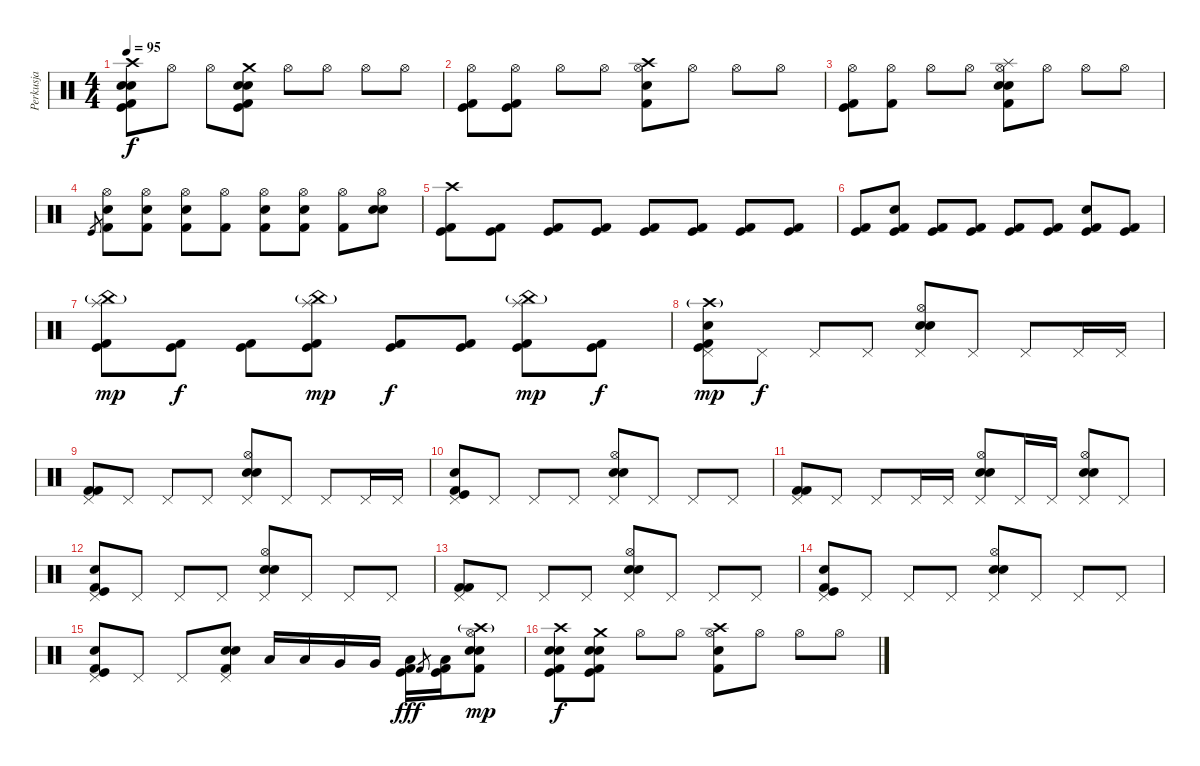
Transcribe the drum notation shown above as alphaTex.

\track ("Perkusja" "Perkusja") {instrument percussion}
\staff {score}
\articulation defaults
\ts (4 4)
\tempo 95
\clef neutral
\ks c
("Crash high (hit)" "Snare (hit) 2" "Electric Snare (hit)" "Kick (hit)" "Kick (hit) 2").8{dy f} "Hi-Hat (open)".8 "Hi-Hat (open)".8 ("Crash medium (hit)" "Snare (hit) 2" "Electric Snare (hit)" "Kick (hit)" "Kick (hit) 2").8 "Hi-Hat (open)".8 "Hi-Hat (open)".8 "Hi-Hat (open)".8 "Hi-Hat (open)".8 |
("Hi-Hat (open)" "Kick (hit)" "Kick (hit) 2").8 ("Hi-Hat (open)" "Kick (hit)" "Kick (hit) 2").8 "Hi-Hat (open)".8 "Hi-Hat (open)".8 ("Hi-Hat (open)" "Crash high (hit)" "Kick (hit) 2" "Electric Snare (hit)").8 "Hi-Hat (open)".8 "Hi-Hat (open)".8 "Hi-Hat (open)".8 |
("Hi-Hat (open)" "Kick (hit)" "Kick (hit) 2").8 ("Hi-Hat (open)" "Kick (hit) 2").8 "Hi-Hat (open)".8 "Hi-Hat (open)".8 ("Hi-Hat (open)" "Splash (hit)" "Snare (hit) 2" "Kick (hit) 2" "Electric Snare (hit)").8 "Hi-Hat (open)".8 "Hi-Hat (open)".8 "Hi-Hat (open)".8 |
"Kick (hit)".8{gr} ("Hi-Hat (open)" "Snare (hit) 2" "Kick (hit) 2").8 ("Hi-Hat (open)" "Electric Snare (hit)" "Kick (hit) 2").8 ("Hi-Hat (open)" "Electric Snare (hit)" "Kick (hit) 2").8 ("Hi-Hat (open)" "Kick (hit) 2").8 ("Hi-Hat (open)" "Kick (hit) 2" "Electric Snare (hit)").8 ("Hi-Hat (open)" "Electric Snare (hit)" "Kick (hit) 2").8 ("Hi-Hat (open)" "Kick (hit) 2").8 ("Hi-Hat (open)" "Electric Snare (hit)" "Electric Snare (hit)").8 |
("Crash high (hit)" "Kick (hit) 2" "Kick (hit)").8 ("Kick (hit) 2" "Kick (hit)").8 ("Kick (hit) 2" "Kick (hit)").8 ("Kick (hit) 2" "Kick (hit)").8 ("Kick (hit) 2" "Kick (hit)").8 ("Kick (hit) 2" "Kick (hit)").8 ("Kick (hit) 2" "Kick (hit)").8 ("Kick (hit) 2" "Kick (hit)").8 |
("Kick (hit) 2" "Kick (hit)").8 ("Snare (hit) 2" "Kick (hit) 2" "Kick (hit)").8 ("Kick (hit) 2" "Kick (hit)").8 ("Kick (hit) 2" "Kick (hit)").8 ("Kick (hit) 2" "Kick (hit)").8 ("Kick (hit) 2" "Kick (hit)").8 ("Snare (hit) 2" "Kick (hit) 2" "Kick (hit)").8 ("Kick (hit) 2" "Kick (hit)").8 |
("China (hit)"{g} "Splash (hit)" "Kick (hit) 2" "Kick (hit)").8{dy mp} ("Kick (hit) 2" "Kick (hit)").8{dy f} ("Kick (hit) 2" "Kick (hit)").8 ("China (hit)"{g} "Splash (hit)" "Kick (hit) 2" "Kick (hit)").8{dy mp} ("Kick (hit) 2" "Kick (hit)").8{dy f} ("Kick (hit) 2" "Kick (hit)").8 ("China (hit)"{g} "Splash (hit)" "Kick (hit) 2" "Kick (hit)").8{dy mp} ("Kick (hit) 2" "Kick (hit)").8{dy f} |
("Pedal Hi-Hat (hit)" "Crash high (hit)"{g} "Electric Snare (hit)" "Kick (hit)" "Kick (hit) 2").8{dy mp} "Pedal Hi-Hat (hit)".8{dy f} "Pedal Hi-Hat (hit)".8 "Pedal Hi-Hat (hit)".8 ("Pedal Hi-Hat (hit)" "Hi-Hat (open)" "Electric Snare (hit)" "Electric Snare (hit)").8 "Pedal Hi-Hat (hit)".8 "Pedal Hi-Hat (hit)".8 "Pedal Hi-Hat (hit)".16 "Pedal Hi-Hat (hit)".16 |
("Pedal Hi-Hat (hit)" "Kick (hit) 2" "Kick (hit) 2").8 "Pedal Hi-Hat (hit)".8 "Pedal Hi-Hat (hit)".8 "Pedal Hi-Hat (hit)".8 ("Pedal Hi-Hat (hit)" "Hi-Hat (open)" "Electric Snare (hit)" "Electric Snare (hit)").8 "Pedal Hi-Hat (hit)".8 "Pedal Hi-Hat (hit)".8 "Pedal Hi-Hat (hit)".16 "Pedal Hi-Hat (hit)".16 |
("Pedal Hi-Hat (hit)" "Electric Snare (hit)" "Kick (hit)" "Kick (hit) 2").8 "Pedal Hi-Hat (hit)".8 "Pedal Hi-Hat (hit)".8 "Pedal Hi-Hat (hit)".8 ("Pedal Hi-Hat (hit)" "Hi-Hat (open)" "Electric Snare (hit)" "Electric Snare (hit)").8 "Pedal Hi-Hat (hit)".8 "Pedal Hi-Hat (hit)".8 "Pedal Hi-Hat (hit)".8 |
("Pedal Hi-Hat (hit)" "Kick (hit) 2" "Kick (hit) 2").8 "Pedal Hi-Hat (hit)".8 "Pedal Hi-Hat (hit)".8 "Pedal Hi-Hat (hit)".16 "Pedal Hi-Hat (hit)".16 ("Pedal Hi-Hat (hit)" "Hi-Hat (open)" "Electric Snare (hit)" "Electric Snare (hit)").8 "Pedal Hi-Hat (hit)".16 "Pedal Hi-Hat (hit)".16 ("Pedal Hi-Hat (hit)" "Hi-Hat (open)" "Electric Snare (hit)" "Electric Snare (hit)").8 "Pedal Hi-Hat (hit)".8 |
("Pedal Hi-Hat (hit)" "Electric Snare (hit)" "Kick (hit)" "Kick (hit) 2").8 "Pedal Hi-Hat (hit)".8 "Pedal Hi-Hat (hit)".8 "Pedal Hi-Hat (hit)".8 ("Pedal Hi-Hat (hit)" "Hi-Hat (open)" "Electric Snare (hit)" "Electric Snare (hit)").8 "Pedal Hi-Hat (hit)".8 "Pedal Hi-Hat (hit)".8 "Pedal Hi-Hat (hit)".8 |
("Pedal Hi-Hat (hit)" "Kick (hit) 2" "Kick (hit) 2").8 "Pedal Hi-Hat (hit)".8 "Pedal Hi-Hat (hit)".8 "Pedal Hi-Hat (hit)".8 ("Pedal Hi-Hat (hit)" "Hi-Hat (open)" "Electric Snare (hit)" "Electric Snare (hit)").8 "Pedal Hi-Hat (hit)".8 "Pedal Hi-Hat (hit)".8 "Pedal Hi-Hat (hit)".8 |
("Pedal Hi-Hat (hit)" "Electric Snare (hit)" "Kick (hit)" "Kick (hit) 2").8 "Pedal Hi-Hat (hit)".8 "Pedal Hi-Hat (hit)".8 "Pedal Hi-Hat (hit)".8 ("Pedal Hi-Hat (hit)" "Hi-Hat (open)" "Electric Snare (hit)" "Electric Snare (hit)").8 "Pedal Hi-Hat (hit)".8 "Pedal Hi-Hat (hit)".8 "Pedal Hi-Hat (hit)".8 |
("Pedal Hi-Hat (hit)" "Electric Snare (hit)" "Kick (hit)" "Kick (hit) 2").8 "Pedal Hi-Hat (hit)".8 "Pedal Hi-Hat (hit)".8 ("Pedal Hi-Hat (hit)" "Snare (hit) 2" "Electric Snare (hit)" "Kick (hit) 2").8 "Low Tom (hit)".16 "Low Tom (hit)".16 "Very Low Tom (hit)".16 "Very Low Tom (hit)".16 ("Kick (hit)" "Low Floor Tom (hit)" "Kick (hit) 2").16{dy fff} "Kick (hit) 2".8{gr} ("Kick (hit)" "Low Floor Tom (hit)" "Kick (hit) 2").16 ("Hi-Hat (open)" "Crash high (hit)"{g} "Snare (hit) 2" "Electric Snare (hit)" "Kick (hit) 2").8{dy mp} |
("Crash high (hit)" "Snare (hit) 2" "Electric Snare (hit)" "Kick (hit)" "Kick (hit) 2").8{dy f} ("Crash medium (hit)" "Snare (hit) 2" "Electric Snare (hit)" "Kick (hit)" "Kick (hit) 2").8 "Hi-Hat (open)".8 "Hi-Hat (open)".8 ("Hi-Hat (open)" "Crash high (hit)" "Kick (hit) 2" "Electric Snare (hit)").8 "Hi-Hat (open)".8 "Hi-Hat (open)".8 "Hi-Hat (open)".8
